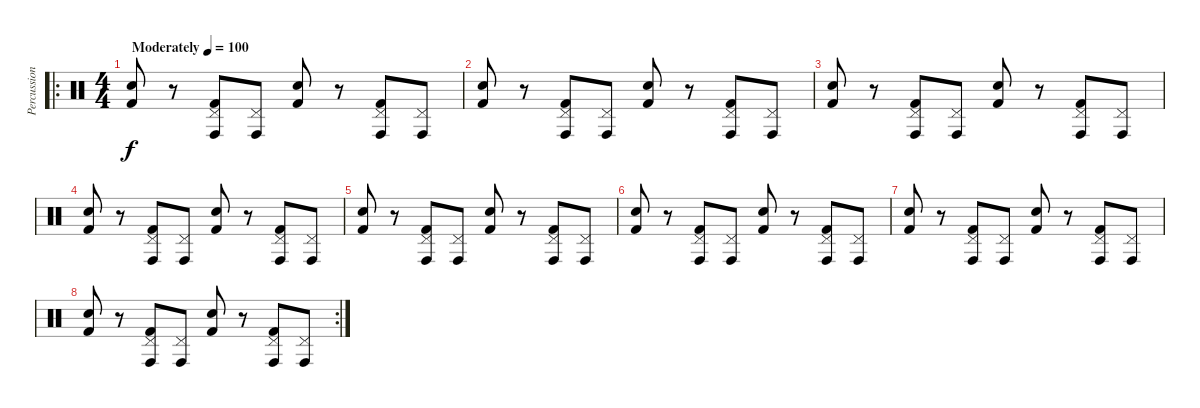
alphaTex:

\track ("Percussion" "Percussion") {instrument percussion}
\staff {score}
\articulation defaults
\ro
\ts (4 4)
\tempo (100 "Moderately")
\clef neutral
\ks c
("Kick (hit) 2" "Snare (hit) 2").8{dy f} r.8 ("Kick (hit) 2" "Pedal Hi-Hat (hit)" "Conga high (hit)").8 ("Pedal Hi-Hat (hit)" "Conga high (hit)").8 ("Kick (hit) 2" "Snare (hit) 2").8 r.8 ("Kick (hit) 2" "Pedal Hi-Hat (hit)" "Conga high (hit)").8 ("Pedal Hi-Hat (hit)" "Conga high (hit)").8 |
("Kick (hit) 2" "Snare (hit) 2").8 r.8 ("Kick (hit) 2" "Pedal Hi-Hat (hit)" "Conga high (hit)").8 ("Pedal Hi-Hat (hit)" "Conga high (hit)").8 ("Kick (hit) 2" "Snare (hit) 2").8 r.8 ("Kick (hit) 2" "Pedal Hi-Hat (hit)" "Conga high (hit)").8 ("Pedal Hi-Hat (hit)" "Conga high (hit)").8 |
("Kick (hit) 2" "Snare (hit) 2").8 r.8 ("Kick (hit) 2" "Pedal Hi-Hat (hit)" "Conga high (hit)").8 ("Pedal Hi-Hat (hit)" "Conga high (hit)").8 ("Kick (hit) 2" "Snare (hit) 2").8 r.8 ("Kick (hit) 2" "Pedal Hi-Hat (hit)" "Conga high (hit)").8 ("Pedal Hi-Hat (hit)" "Conga high (hit)").8 |
("Kick (hit) 2" "Snare (hit) 2").8 r.8 ("Kick (hit) 2" "Pedal Hi-Hat (hit)" "Conga high (hit)").8 ("Pedal Hi-Hat (hit)" "Conga high (hit)").8 ("Kick (hit) 2" "Snare (hit) 2").8 r.8 ("Kick (hit) 2" "Pedal Hi-Hat (hit)" "Conga high (hit)").8 ("Pedal Hi-Hat (hit)" "Conga high (hit)").8 |
("Kick (hit) 2" "Snare (hit) 2").8 r.8 ("Kick (hit) 2" "Pedal Hi-Hat (hit)" "Conga high (hit)").8 ("Pedal Hi-Hat (hit)" "Conga high (hit)").8 ("Kick (hit) 2" "Snare (hit) 2").8 r.8 ("Kick (hit) 2" "Pedal Hi-Hat (hit)" "Conga high (hit)").8 ("Pedal Hi-Hat (hit)" "Conga high (hit)").8 |
("Kick (hit) 2" "Snare (hit) 2").8 r.8 ("Kick (hit) 2" "Pedal Hi-Hat (hit)" "Conga high (hit)").8 ("Pedal Hi-Hat (hit)" "Conga high (hit)").8 ("Kick (hit) 2" "Snare (hit) 2").8 r.8 ("Kick (hit) 2" "Pedal Hi-Hat (hit)" "Conga high (hit)").8 ("Pedal Hi-Hat (hit)" "Conga high (hit)").8 |
("Kick (hit) 2" "Snare (hit) 2").8 r.8 ("Kick (hit) 2" "Pedal Hi-Hat (hit)" "Conga high (hit)").8 ("Pedal Hi-Hat (hit)" "Conga high (hit)").8 ("Kick (hit) 2" "Snare (hit) 2").8 r.8 ("Kick (hit) 2" "Pedal Hi-Hat (hit)" "Conga high (hit)").8 ("Pedal Hi-Hat (hit)" "Conga high (hit)").8 |
\rc 2
("Kick (hit) 2" "Snare (hit) 2").8 r.8 ("Kick (hit) 2" "Pedal Hi-Hat (hit)" "Conga high (hit)").8 ("Pedal Hi-Hat (hit)" "Conga high (hit)").8 ("Kick (hit) 2" "Snare (hit) 2").8 r.8 ("Kick (hit) 2" "Pedal Hi-Hat (hit)" "Conga high (hit)").8 ("Pedal Hi-Hat (hit)" "Conga high (hit)").8
